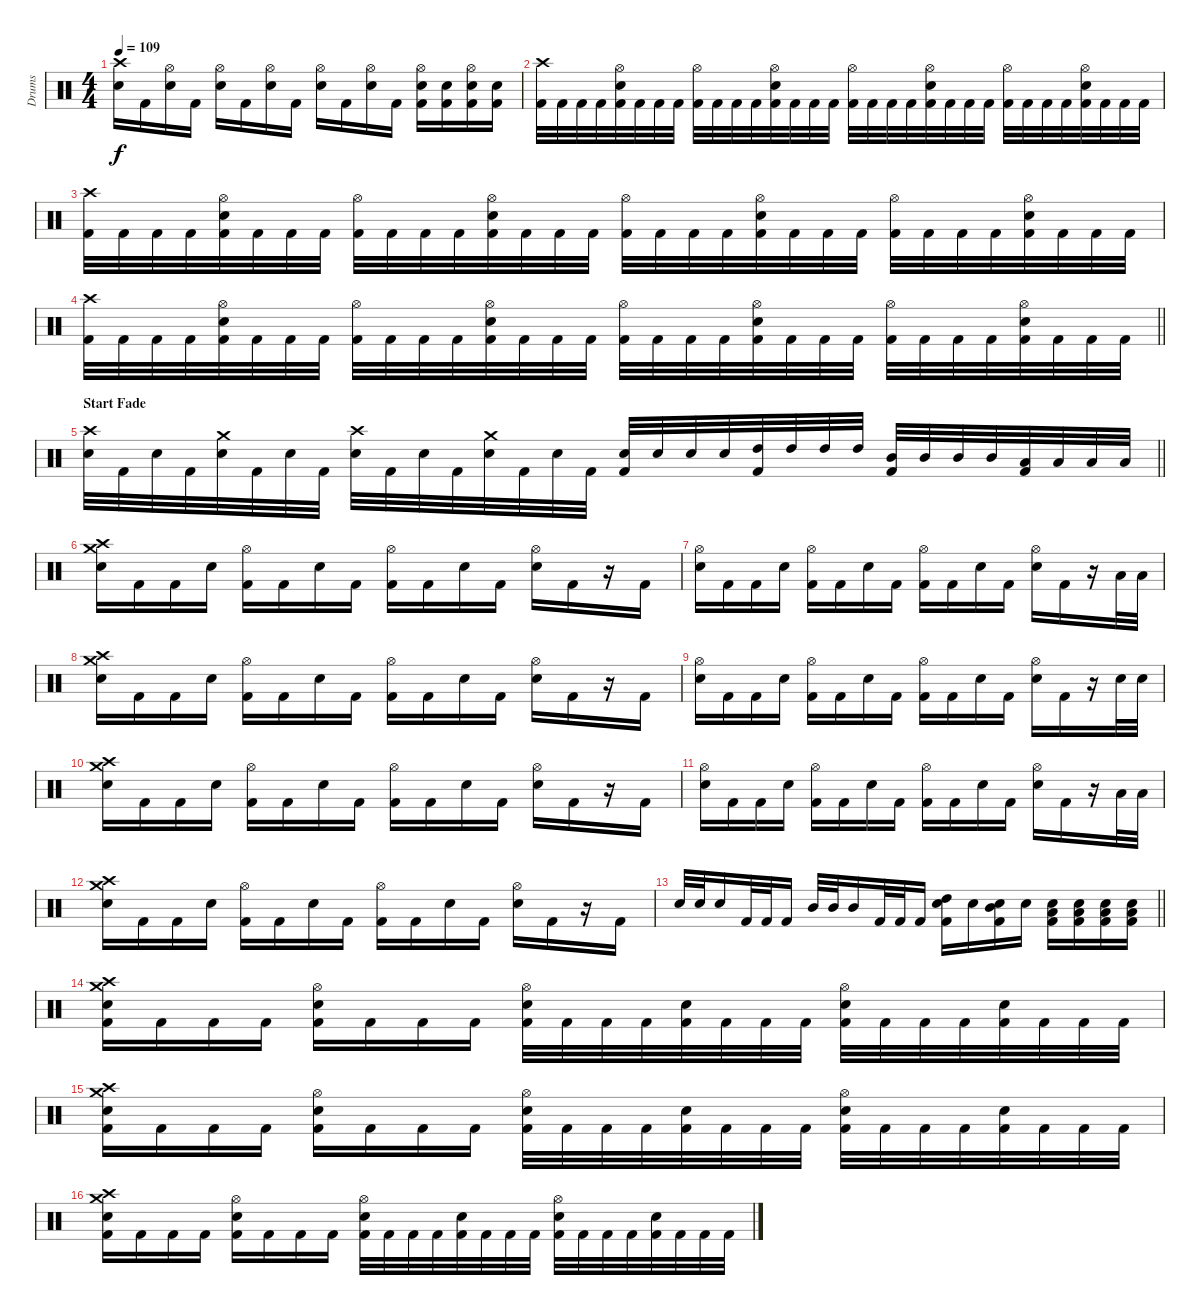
\track ("Drums" "Drums") {instrument percussion}
\staff {score}
\articulation defaults
\ts (4 4)
\tempo 109
\clef neutral
\ks c
("Crash high (hit)" "Snare (hit) 2").16{dy f} "Kick (hit) 2".16 ("Hi-Hat (open)" "Snare (hit) 2").16 "Kick (hit) 2".16 ("Hi-Hat (open)" "Snare (hit) 2").16 "Kick (hit) 2".16 ("Hi-Hat (open)" "Snare (hit) 2").16 "Kick (hit) 2".16 ("Hi-Hat (open)" "Snare (hit) 2").16 "Kick (hit) 2".16 ("Hi-Hat (open)" "Snare (hit) 2").16 "Kick (hit) 2".16 ("Hi-Hat (open)" "Snare (hit) 2" "Kick (hit) 2").16 ("Snare (hit) 2" "Kick (hit) 2").16 ("Hi-Hat (open)" "Snare (hit) 2" "Kick (hit) 2").16 ("Snare (hit) 2" "Kick (hit) 2").16 |
("Crash high (hit)" "Kick (hit) 2").32 "Kick (hit) 2".32 "Kick (hit) 2".32 "Kick (hit) 2".32 ("Hi-Hat (open)" "Snare (hit) 2" "Kick (hit) 2").32 "Kick (hit) 2".32 "Kick (hit) 2".32 "Kick (hit) 2".32 ("Hi-Hat (open)" "Kick (hit) 2").32 "Kick (hit) 2".32 "Kick (hit) 2".32 "Kick (hit) 2".32 ("Hi-Hat (open)" "Snare (hit) 2" "Kick (hit) 2").32 "Kick (hit) 2".32 "Kick (hit) 2".32 "Kick (hit) 2".32 ("Hi-Hat (open)" "Kick (hit) 2").32 "Kick (hit) 2".32 "Kick (hit) 2".32 "Kick (hit) 2".32 ("Hi-Hat (open)" "Snare (hit) 2" "Kick (hit) 2").32 "Kick (hit) 2".32 "Kick (hit) 2".32 "Kick (hit) 2".32 ("Hi-Hat (open)" "Kick (hit) 2").32 "Kick (hit) 2".32 "Kick (hit) 2".32 "Kick (hit) 2".32 ("Hi-Hat (open)" "Snare (hit) 2" "Kick (hit) 2").32 "Kick (hit) 2".32 "Kick (hit) 2".32 "Kick (hit) 2".32 |
("Crash high (hit)" "Kick (hit) 2").32 "Kick (hit) 2".32 "Kick (hit) 2".32 "Kick (hit) 2".32 ("Hi-Hat (open)" "Snare (hit) 2" "Kick (hit) 2").32 "Kick (hit) 2".32 "Kick (hit) 2".32 "Kick (hit) 2".32 ("Hi-Hat (open)" "Kick (hit) 2").32 "Kick (hit) 2".32 "Kick (hit) 2".32 "Kick (hit) 2".32 ("Hi-Hat (open)" "Snare (hit) 2" "Kick (hit) 2").32 "Kick (hit) 2".32 "Kick (hit) 2".32 "Kick (hit) 2".32 ("Hi-Hat (open)" "Kick (hit) 2").32 "Kick (hit) 2".32 "Kick (hit) 2".32 "Kick (hit) 2".32 ("Hi-Hat (open)" "Snare (hit) 2" "Kick (hit) 2").32 "Kick (hit) 2".32 "Kick (hit) 2".32 "Kick (hit) 2".32 ("Hi-Hat (open)" "Kick (hit) 2").32 "Kick (hit) 2".32 "Kick (hit) 2".32 "Kick (hit) 2".32 ("Hi-Hat (open)" "Snare (hit) 2" "Kick (hit) 2").32 "Kick (hit) 2".32 "Kick (hit) 2".32 "Kick (hit) 2".32 |
\barLineRight lightlight
("Crash high (hit)" "Kick (hit) 2").32 "Kick (hit) 2".32 "Kick (hit) 2".32 "Kick (hit) 2".32 ("Hi-Hat (open)" "Snare (hit) 2" "Kick (hit) 2").32 "Kick (hit) 2".32 "Kick (hit) 2".32 "Kick (hit) 2".32 ("Hi-Hat (open)" "Kick (hit) 2").32 "Kick (hit) 2".32 "Kick (hit) 2".32 "Kick (hit) 2".32 ("Hi-Hat (open)" "Snare (hit) 2" "Kick (hit) 2").32 "Kick (hit) 2".32 "Kick (hit) 2".32 "Kick (hit) 2".32 ("Hi-Hat (open)" "Kick (hit) 2").32 "Kick (hit) 2".32 "Kick (hit) 2".32 "Kick (hit) 2".32 ("Hi-Hat (open)" "Snare (hit) 2" "Kick (hit) 2").32 "Kick (hit) 2".32 "Kick (hit) 2".32 "Kick (hit) 2".32 ("Hi-Hat (open)" "Kick (hit) 2").32 "Kick (hit) 2".32 "Kick (hit) 2".32 "Kick (hit) 2".32 ("Hi-Hat (open)" "Snare (hit) 2" "Kick (hit) 2").32 "Kick (hit) 2".32 "Kick (hit) 2".32 "Kick (hit) 2".32 |
\section ("" "Start Fade")
\barLineRight lightlight
("Crash high (hit)" "Snare (hit) 2").32 "Kick (hit) 2".32 "Snare (hit) 2".32 "Kick (hit) 2".32 ("Crash medium (hit)" "Snare (hit) 2").32 "Kick (hit) 2".32 "Snare (hit) 2".32 "Kick (hit) 2".32 ("Crash high (hit)" "Snare (hit) 2").32 "Kick (hit) 2".32 "Snare (hit) 2".32 "Kick (hit) 2".32 ("Crash medium (hit)" "Snare (hit) 2").32 "Kick (hit) 2".32 "Snare (hit) 2".32 "Kick (hit) 2".32 ("Snare (hit) 2" "Kick (hit) 2").32 "Snare (hit) 2".32 "Snare (hit) 2".32 "Snare (hit) 2".32 ("High Tom (hit)" "Kick (hit) 2").32 "High Tom (hit)".32 "High Tom (hit)".32 "High Tom (hit)".32 ("Mid Tom (hit)" "Kick (hit) 2").32 "Mid Tom (hit)".32 "Mid Tom (hit)".32 "Mid Tom (hit)".32 ("Low Tom (hit)" "Kick (hit) 2").32 "Low Tom (hit)".32 "Low Tom (hit)".32 "Low Tom (hit)".32 |
("Crash medium (hit)" "Crash high (hit)" "Snare (hit) 2").16 "Kick (hit) 2".16 "Kick (hit) 2".16 "Snare (hit) 2".16 ("Hi-Hat (open)" "Kick (hit) 2").16 "Kick (hit) 2".16 "Snare (hit) 2".16 "Kick (hit) 2".16 ("Hi-Hat (open)" "Kick (hit) 2").16 "Kick (hit) 2".16 "Snare (hit) 2".16 "Kick (hit) 2".16 ("Hi-Hat (open)" "Snare (hit) 2").16 "Kick (hit) 2".16 r.16 "Kick (hit) 2".16 |
("Hi-Hat (open)" "Snare (hit) 2").16 "Kick (hit) 2".16 "Kick (hit) 2".16 "Snare (hit) 2".16 ("Hi-Hat (open)" "Kick (hit) 2").16 "Kick (hit) 2".16 "Snare (hit) 2".16 "Kick (hit) 2".16 ("Hi-Hat (open)" "Kick (hit) 2").16 "Kick (hit) 2".16 "Snare (hit) 2".16 "Kick (hit) 2".16 ("Hi-Hat (open)" "Snare (hit) 2").16 "Kick (hit) 2".16 r.16 "Low Tom (hit)".32 "Low Tom (hit)".32 |
("Crash medium (hit)" "Crash high (hit)" "Snare (hit) 2").16 "Kick (hit) 2".16 "Kick (hit) 2".16 "Snare (hit) 2".16 ("Hi-Hat (open)" "Kick (hit) 2").16 "Kick (hit) 2".16 "Snare (hit) 2".16 "Kick (hit) 2".16 ("Hi-Hat (open)" "Kick (hit) 2").16 "Kick (hit) 2".16 "Snare (hit) 2".16 "Kick (hit) 2".16 ("Hi-Hat (open)" "Snare (hit) 2").16 "Kick (hit) 2".16 r.16 "Kick (hit) 2".16 |
("Hi-Hat (open)" "Snare (hit) 2").16 "Kick (hit) 2".16 "Kick (hit) 2".16 "Snare (hit) 2".16 ("Hi-Hat (open)" "Kick (hit) 2").16 "Kick (hit) 2".16 "Snare (hit) 2".16 "Kick (hit) 2".16 ("Hi-Hat (open)" "Kick (hit) 2").16 "Kick (hit) 2".16 "Snare (hit) 2".16 "Kick (hit) 2".16 ("Hi-Hat (open)" "Snare (hit) 2").16 "Kick (hit) 2".16 r.16 "Snare (hit) 2".32 "Snare (hit) 2".32 |
("Crash medium (hit)" "Crash high (hit)" "Snare (hit) 2").16 "Kick (hit) 2".16 "Kick (hit) 2".16 "Snare (hit) 2".16 ("Hi-Hat (open)" "Kick (hit) 2").16 "Kick (hit) 2".16 "Snare (hit) 2".16 "Kick (hit) 2".16 ("Hi-Hat (open)" "Kick (hit) 2").16 "Kick (hit) 2".16 "Snare (hit) 2".16 "Kick (hit) 2".16 ("Hi-Hat (open)" "Snare (hit) 2").16 "Kick (hit) 2".16 r.16 "Kick (hit) 2".16 |
("Hi-Hat (open)" "Snare (hit) 2").16 "Kick (hit) 2".16 "Kick (hit) 2".16 "Snare (hit) 2".16 ("Hi-Hat (open)" "Kick (hit) 2").16 "Kick (hit) 2".16 "Snare (hit) 2".16 "Kick (hit) 2".16 ("Hi-Hat (open)" "Kick (hit) 2").16 "Kick (hit) 2".16 "Snare (hit) 2".16 "Kick (hit) 2".16 ("Hi-Hat (open)" "Snare (hit) 2").16 "Kick (hit) 2".16 r.16 "Low Tom (hit)".32 "Low Tom (hit)".32 |
("Crash medium (hit)" "Crash high (hit)" "Snare (hit) 2").16 "Kick (hit) 2".16 "Kick (hit) 2".16 "Snare (hit) 2".16 ("Hi-Hat (open)" "Kick (hit) 2").16 "Kick (hit) 2".16 "Snare (hit) 2".16 "Kick (hit) 2".16 ("Hi-Hat (open)" "Kick (hit) 2").16 "Kick (hit) 2".16 "Snare (hit) 2".16 "Kick (hit) 2".16 ("Hi-Hat (open)" "Snare (hit) 2").16 "Kick (hit) 2".16 r.16 "Kick (hit) 2".16 |
\barLineRight lightlight "Snare (hit) 2".32 "Snare (hit) 2".32 "Snare (hit) 2".16 "Kick (hit) 2".32 "Kick (hit) 2".32 "Kick (hit) 2".16 "Mid Tom (hit)".32 "Mid Tom (hit)".32 "Mid Tom (hit)".16 "Kick (hit) 2".32 "Kick (hit) 2".32 "Kick (hit) 2".16
("High Tom (hit)" "Snare (hit) 2" "Kick (hit) 2").16 "Snare (hit) 2".16 ("Mid Tom (hit)" "Snare (hit) 2" "Kick (hit) 2").16 "Snare (hit) 2".16 ("Low Tom (hit)" "Snare (hit) 2" "Kick (hit) 2").16 ("Low Tom (hit)" "Snare (hit) 2" "Kick (hit) 2").16 ("Low Tom (hit)" "Snare (hit) 2" "Kick (hit) 2").16 ("Low Tom (hit)" "Snare (hit) 2" "Kick (hit) 2").16 |
("Crash medium (hit)" "Crash high (hit)" "Snare (hit) 2" "Kick (hit) 2").16 "Kick (hit) 2".16 "Kick (hit) 2".16 "Kick (hit) 2".16 ("Hi-Hat (open)" "Snare (hit) 2" "Kick (hit) 2").16 "Kick (hit) 2".16 "Kick (hit) 2".16 "Kick (hit) 2".16 ("Hi-Hat (open)" "Snare (hit) 2" "Kick (hit) 2").32 "Kick (hit) 2".32 "Kick (hit) 2".32 "Kick (hit) 2".32 ("Snare (hit) 2" "Kick (hit) 2").32 "Kick (hit) 2".32 "Kick (hit) 2".32 "Kick (hit) 2".32 ("Hi-Hat (open)" "Snare (hit) 2" "Kick (hit) 2").32 "Kick (hit) 2".32 "Kick (hit) 2".32 "Kick (hit) 2".32 ("Snare (hit) 2" "Kick (hit) 2").32 "Kick (hit) 2".32 "Kick (hit) 2".32 "Kick (hit) 2".32 |
("Crash medium (hit)" "Crash high (hit)" "Snare (hit) 2" "Kick (hit) 2").16 "Kick (hit) 2".16 "Kick (hit) 2".16 "Kick (hit) 2".16 ("Hi-Hat (open)" "Snare (hit) 2" "Kick (hit) 2").16 "Kick (hit) 2".16 "Kick (hit) 2".16 "Kick (hit) 2".16 ("Hi-Hat (open)" "Snare (hit) 2" "Kick (hit) 2").32 "Kick (hit) 2".32 "Kick (hit) 2".32 "Kick (hit) 2".32 ("Snare (hit) 2" "Kick (hit) 2").32 "Kick (hit) 2".32 "Kick (hit) 2".32 "Kick (hit) 2".32 ("Hi-Hat (open)" "Snare (hit) 2" "Kick (hit) 2").32 "Kick (hit) 2".32 "Kick (hit) 2".32 "Kick (hit) 2".32 ("Snare (hit) 2" "Kick (hit) 2").32 "Kick (hit) 2".32 "Kick (hit) 2".32 "Kick (hit) 2".32 |
("Crash medium (hit)" "Crash high (hit)" "Snare (hit) 2" "Kick (hit) 2").16 "Kick (hit) 2".16 "Kick (hit) 2".16 "Kick (hit) 2".16 ("Hi-Hat (open)" "Snare (hit) 2" "Kick (hit) 2").16 "Kick (hit) 2".16 "Kick (hit) 2".16 "Kick (hit) 2".16 ("Hi-Hat (open)" "Snare (hit) 2" "Kick (hit) 2").32 "Kick (hit) 2".32 "Kick (hit) 2".32 "Kick (hit) 2".32 ("Snare (hit) 2" "Kick (hit) 2").32 "Kick (hit) 2".32 "Kick (hit) 2".32 "Kick (hit) 2".32 ("Hi-Hat (open)" "Snare (hit) 2" "Kick (hit) 2").32 "Kick (hit) 2".32 "Kick (hit) 2".32 "Kick (hit) 2".32 ("Snare (hit) 2" "Kick (hit) 2").32 "Kick (hit) 2".32 "Kick (hit) 2".32 "Kick (hit) 2".32
